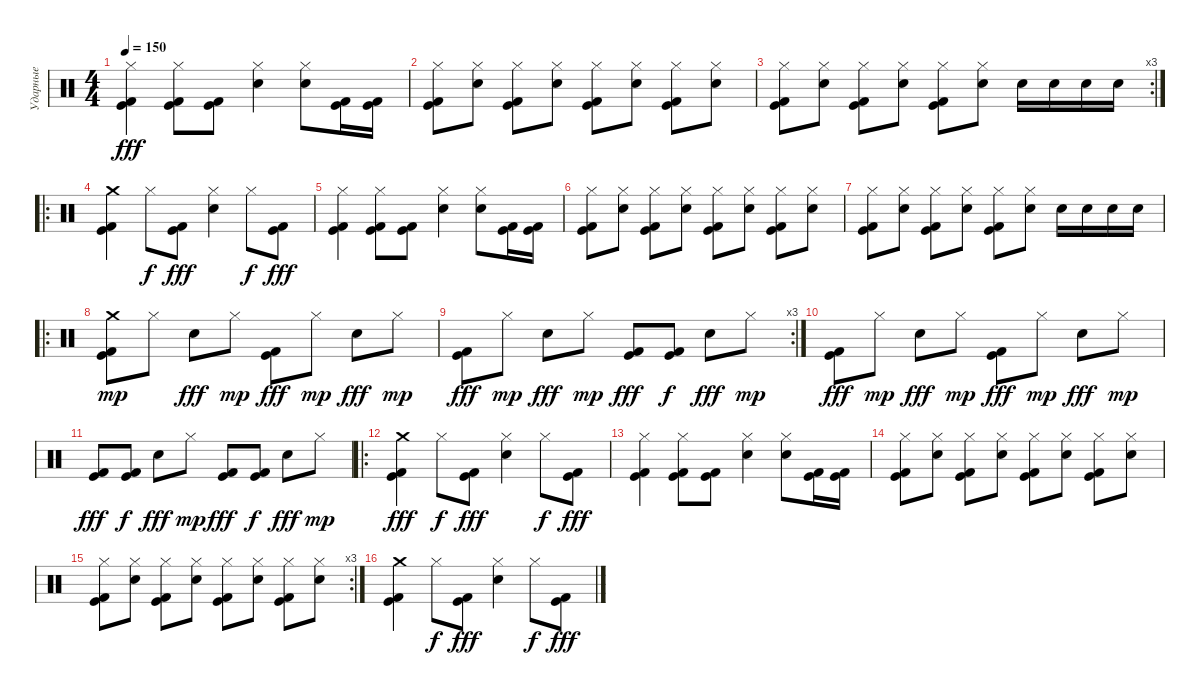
\track ("Ударные" "Ударные") {instrument percussion}
\staff {score}
\articulation defaults
\ts (4 4)
\tempo 150
\clef neutral
\ks c
("Hi-Hat (closed)" "Kick (hit)" "Kick (hit) 2").4{dy fff} ("Hi-Hat (closed)" "Kick (hit)" "Kick (hit) 2").8 ("Kick (hit)" "Kick (hit) 2").8 ("Hi-Hat (closed)" "Snare (hit) 2").4 ("Hi-Hat (closed)" "Snare (hit) 2").8 ("Kick (hit)" "Kick (hit) 2").16 ("Kick (hit)" "Kick (hit) 2").16 |
("Kick (hit)" "Kick (hit) 2" "Hi-Hat (closed)").8 ("Snare (hit) 2" "Hi-Hat (closed)").8 ("Kick (hit)" "Kick (hit) 2" "Hi-Hat (closed)").8 ("Snare (hit) 2" "Hi-Hat (closed)").8 ("Kick (hit)" "Kick (hit) 2" "Hi-Hat (closed)").8 ("Snare (hit) 2" "Hi-Hat (closed)").8 ("Kick (hit)" "Kick (hit) 2" "Hi-Hat (closed)").8 ("Snare (hit) 2" "Hi-Hat (closed)").8 |
\rc 3
("Kick (hit)" "Kick (hit) 2" "Hi-Hat (closed)").8 ("Snare (hit) 2" "Hi-Hat (closed)").8 ("Kick (hit)" "Kick (hit) 2" "Hi-Hat (closed)").8 ("Snare (hit) 2" "Hi-Hat (closed)").8 ("Kick (hit)" "Kick (hit) 2" "Hi-Hat (closed)").8 ("Snare (hit) 2" "Hi-Hat (closed)").8 "Snare (hit) 2".16 "Snare (hit) 2".16 "Snare (hit) 2".16 "Snare (hit) 2".16 |
\ro
("Crash medium (hit)" "Kick (hit)" "Kick (hit) 2").4 "Hi-Hat (closed)".8{dy f} ("Kick (hit)" "Kick (hit) 2").8{dy fff} ("Hi-Hat (closed)" "Snare (hit) 2").4 "Hi-Hat (closed)".8{dy f} ("Kick (hit)" "Kick (hit) 2").8{dy fff} |
("Hi-Hat (closed)" "Kick (hit)" "Kick (hit) 2").4 ("Hi-Hat (closed)" "Kick (hit)" "Kick (hit) 2").8 ("Kick (hit)" "Kick (hit) 2").8 ("Hi-Hat (closed)" "Snare (hit) 2").4 ("Hi-Hat (closed)" "Snare (hit) 2").8 ("Kick (hit)" "Kick (hit) 2").16 ("Kick (hit)" "Kick (hit) 2").16 |
("Kick (hit)" "Kick (hit) 2" "Hi-Hat (closed)").8 ("Snare (hit) 2" "Hi-Hat (closed)").8 ("Kick (hit)" "Kick (hit) 2" "Hi-Hat (closed)").8 ("Snare (hit) 2" "Hi-Hat (closed)").8 ("Kick (hit)" "Kick (hit) 2" "Hi-Hat (closed)").8 ("Snare (hit) 2" "Hi-Hat (closed)").8 ("Kick (hit)" "Kick (hit) 2" "Hi-Hat (closed)").8 ("Snare (hit) 2" "Hi-Hat (closed)").8 |
("Kick (hit)" "Kick (hit) 2" "Hi-Hat (closed)").8 ("Snare (hit) 2" "Hi-Hat (closed)").8 ("Kick (hit)" "Kick (hit) 2" "Hi-Hat (closed)").8 ("Snare (hit) 2" "Hi-Hat (closed)").8 ("Kick (hit)" "Kick (hit) 2" "Hi-Hat (closed)").8 ("Snare (hit) 2" "Hi-Hat (closed)").8 "Snare (hit) 2".16 "Snare (hit) 2".16 "Snare (hit) 2".16 "Snare (hit) 2".16 |
\ro
("Kick (hit) 2" "Kick (hit)" "Crash medium (hit)").8{dy mp} "Hi-Hat (closed)".8 "Snare (hit) 2".8{dy fff} "Hi-Hat (closed)".8{dy mp} ("Kick (hit) 2" "Kick (hit)").8{dy fff} "Hi-Hat (closed)".8{dy mp} "Snare (hit) 2".8{dy fff} "Hi-Hat (closed)".8{dy mp} |
\rc 3
("Kick (hit) 2" "Kick (hit)").8{dy fff} "Hi-Hat (closed)".8{dy mp} "Snare (hit) 2".8{dy fff} "Hi-Hat (closed)".8{dy mp} ("Kick (hit) 2" "Kick (hit)").8{dy fff} ("Kick (hit) 2" "Kick (hit)").8{dy f} "Snare (hit) 2".8{dy fff} "Hi-Hat (closed)".8{dy mp} |
("Kick (hit) 2" "Kick (hit)").8{dy fff} "Hi-Hat (closed)".8{dy mp} "Snare (hit) 2".8{dy fff} "Hi-Hat (closed)".8{dy mp} ("Kick (hit) 2" "Kick (hit)").8{dy fff} "Hi-Hat (closed)".8{dy mp} "Snare (hit) 2".8{dy fff} "Hi-Hat (closed)".8{dy mp} |
("Kick (hit) 2" "Kick (hit)").8{dy fff} ("Kick (hit) 2" "Kick (hit)").8{dy f} "Snare (hit) 2".8{dy fff} "Hi-Hat (closed)".8{dy mp} ("Kick (hit) 2" "Kick (hit)").8{dy fff} ("Kick (hit)" "Kick (hit) 2").8{dy f} "Snare (hit) 2".8{dy fff} "Hi-Hat (closed)".8{dy mp} |
\ro
("Crash medium (hit)" "Kick (hit)" "Kick (hit) 2").4{dy fff} "Hi-Hat (closed)".8{dy f} ("Kick (hit)" "Kick (hit) 2").8{dy fff} ("Hi-Hat (closed)" "Snare (hit) 2").4 "Hi-Hat (closed)".8{dy f} ("Kick (hit)" "Kick (hit) 2").8{dy fff} |
("Hi-Hat (closed)" "Kick (hit)" "Kick (hit) 2").4 ("Hi-Hat (closed)" "Kick (hit)" "Kick (hit) 2").8 ("Kick (hit)" "Kick (hit) 2").8 ("Hi-Hat (closed)" "Snare (hit) 2").4 ("Hi-Hat (closed)" "Snare (hit) 2").8 ("Kick (hit)" "Kick (hit) 2").16 ("Kick (hit)" "Kick (hit) 2").16 |
("Kick (hit)" "Kick (hit) 2" "Hi-Hat (closed)").8 ("Snare (hit) 2" "Hi-Hat (closed)").8 ("Kick (hit)" "Kick (hit) 2" "Hi-Hat (closed)").8 ("Snare (hit) 2" "Hi-Hat (closed)").8 ("Kick (hit)" "Kick (hit) 2" "Hi-Hat (closed)").8 ("Snare (hit) 2" "Hi-Hat (closed)").8 ("Kick (hit)" "Kick (hit) 2" "Hi-Hat (closed)").8 ("Snare (hit) 2" "Hi-Hat (closed)").8 |
\rc 3
("Kick (hit)" "Kick (hit) 2" "Hi-Hat (closed)").8 ("Snare (hit) 2" "Hi-Hat (closed)").8 ("Kick (hit)" "Kick (hit) 2" "Hi-Hat (closed)").8 ("Snare (hit) 2" "Hi-Hat (closed)").8 ("Kick (hit)" "Kick (hit) 2" "Hi-Hat (closed)").8 ("Snare (hit) 2" "Hi-Hat (closed)").8 ("Kick (hit)" "Kick (hit) 2" "Hi-Hat (closed)").8 ("Snare (hit) 2" "Hi-Hat (closed)").8 |
("Crash medium (hit)" "Kick (hit)" "Kick (hit) 2").4 "Hi-Hat (closed)".8{dy f} ("Kick (hit)" "Kick (hit) 2").8{dy fff} ("Hi-Hat (closed)" "Snare (hit) 2").4 "Hi-Hat (closed)".8{dy f} ("Kick (hit)" "Kick (hit) 2").8{dy fff}
